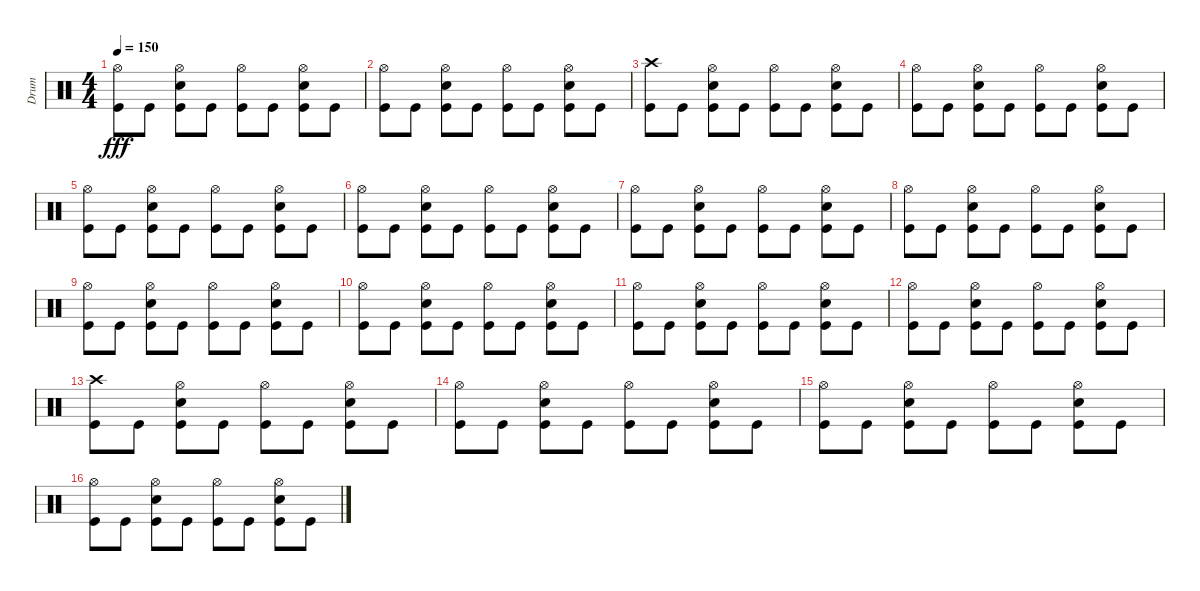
\track ("Drum" "Drum") {instrument percussion}
\staff {score}
\articulation defaults
\ts (4 4)
\tempo 150
\clef neutral
\ks c
("Hi-Hat (open)" "Kick (hit)").8{dy fff} "Kick (hit)".8 ("Hi-Hat (open)" "Snare (hit) 2" "Kick (hit)").8 "Kick (hit)".8 ("Hi-Hat (open)" "Kick (hit)").8 "Kick (hit)".8 ("Hi-Hat (open)" "Snare (hit) 2" "Kick (hit)").8 "Kick (hit)".8 |
("Hi-Hat (open)" "Kick (hit)").8 "Kick (hit)".8 ("Hi-Hat (open)" "Snare (hit) 2" "Kick (hit)").8 "Kick (hit)".8 ("Hi-Hat (open)" "Kick (hit)").8 "Kick (hit)".8 ("Hi-Hat (open)" "Snare (hit) 2" "Kick (hit)").8 "Kick (hit)".8 |
("Crash high (hit)" "Kick (hit)").8 "Kick (hit)".8 ("Hi-Hat (open)" "Snare (hit) 2" "Kick (hit)").8 "Kick (hit)".8 ("Hi-Hat (open)" "Kick (hit)").8 "Kick (hit)".8 ("Hi-Hat (open)" "Snare (hit) 2" "Kick (hit)").8 "Kick (hit)".8 |
("Hi-Hat (open)" "Kick (hit)").8 "Kick (hit)".8 ("Hi-Hat (open)" "Snare (hit) 2" "Kick (hit)").8 "Kick (hit)".8 ("Hi-Hat (open)" "Kick (hit)").8 "Kick (hit)".8 ("Hi-Hat (open)" "Snare (hit) 2" "Kick (hit)").8 "Kick (hit)".8 |
("Hi-Hat (open)" "Kick (hit)").8 "Kick (hit)".8 ("Hi-Hat (open)" "Snare (hit) 2" "Kick (hit)").8 "Kick (hit)".8 ("Hi-Hat (open)" "Kick (hit)").8 "Kick (hit)".8 ("Hi-Hat (open)" "Snare (hit) 2" "Kick (hit)").8 "Kick (hit)".8 |
("Hi-Hat (open)" "Kick (hit)").8 "Kick (hit)".8 ("Hi-Hat (open)" "Snare (hit) 2" "Kick (hit)").8 "Kick (hit)".8 ("Hi-Hat (open)" "Kick (hit)").8 "Kick (hit)".8 ("Hi-Hat (open)" "Snare (hit) 2" "Kick (hit)").8 "Kick (hit)".8 |
("Hi-Hat (open)" "Kick (hit)").8 "Kick (hit)".8 ("Hi-Hat (open)" "Snare (hit) 2" "Kick (hit)").8 "Kick (hit)".8 ("Hi-Hat (open)" "Kick (hit)").8 "Kick (hit)".8 ("Hi-Hat (open)" "Snare (hit) 2" "Kick (hit)").8 "Kick (hit)".8 |
("Hi-Hat (open)" "Kick (hit)").8 "Kick (hit)".8 ("Hi-Hat (open)" "Snare (hit) 2" "Kick (hit)").8 "Kick (hit)".8 ("Hi-Hat (open)" "Kick (hit)").8 "Kick (hit)".8 ("Hi-Hat (open)" "Snare (hit) 2" "Kick (hit)").8 "Kick (hit)".8 |
("Hi-Hat (open)" "Kick (hit)").8 "Kick (hit)".8 ("Hi-Hat (open)" "Snare (hit) 2" "Kick (hit)").8 "Kick (hit)".8 ("Hi-Hat (open)" "Kick (hit)").8 "Kick (hit)".8 ("Hi-Hat (open)" "Snare (hit) 2" "Kick (hit)").8 "Kick (hit)".8 |
("Hi-Hat (open)" "Kick (hit)").8 "Kick (hit)".8 ("Hi-Hat (open)" "Snare (hit) 2" "Kick (hit)").8 "Kick (hit)".8 ("Hi-Hat (open)" "Kick (hit)").8 "Kick (hit)".8 ("Hi-Hat (open)" "Snare (hit) 2" "Kick (hit)").8 "Kick (hit)".8 |
("Hi-Hat (open)" "Kick (hit)").8 "Kick (hit)".8 ("Hi-Hat (open)" "Snare (hit) 2" "Kick (hit)").8 "Kick (hit)".8 ("Hi-Hat (open)" "Kick (hit)").8 "Kick (hit)".8 ("Hi-Hat (open)" "Snare (hit) 2" "Kick (hit)").8 "Kick (hit)".8 |
("Hi-Hat (open)" "Kick (hit)").8 "Kick (hit)".8 ("Hi-Hat (open)" "Snare (hit) 2" "Kick (hit)").8 "Kick (hit)".8 ("Hi-Hat (open)" "Kick (hit)").8 "Kick (hit)".8 ("Hi-Hat (open)" "Snare (hit) 2" "Kick (hit)").8 "Kick (hit)".8 |
("Crash high (hit)" "Kick (hit)").8{volume 10} "Kick (hit)".8 ("Hi-Hat (open)" "Snare (hit) 2" "Kick (hit)").8 "Kick (hit)".8 ("Hi-Hat (open)" "Kick (hit)").8 "Kick (hit)".8 ("Hi-Hat (open)" "Snare (hit) 2" "Kick (hit)").8 "Kick (hit)".8 |
("Hi-Hat (open)" "Kick (hit)").8 "Kick (hit)".8 ("Hi-Hat (open)" "Snare (hit) 2" "Kick (hit)").8 "Kick (hit)".8 ("Hi-Hat (open)" "Kick (hit)").8 "Kick (hit)".8 ("Hi-Hat (open)" "Snare (hit) 2" "Kick (hit)").8 "Kick (hit)".8 |
("Hi-Hat (open)" "Kick (hit)").8{volume 5} "Kick (hit)".8 ("Hi-Hat (open)" "Snare (hit) 2" "Kick (hit)").8 "Kick (hit)".8 ("Hi-Hat (open)" "Kick (hit)").8 "Kick (hit)".8 ("Hi-Hat (open)" "Snare (hit) 2" "Kick (hit)").8 "Kick (hit)".8 |
("Hi-Hat (open)" "Kick (hit)").8 "Kick (hit)".8 ("Hi-Hat (open)" "Snare (hit) 2" "Kick (hit)").8 "Kick (hit)".8 ("Hi-Hat (open)" "Kick (hit)").8 "Kick (hit)".8 ("Hi-Hat (open)" "Snare (hit) 2" "Kick (hit)").8 "Kick (hit)".8
